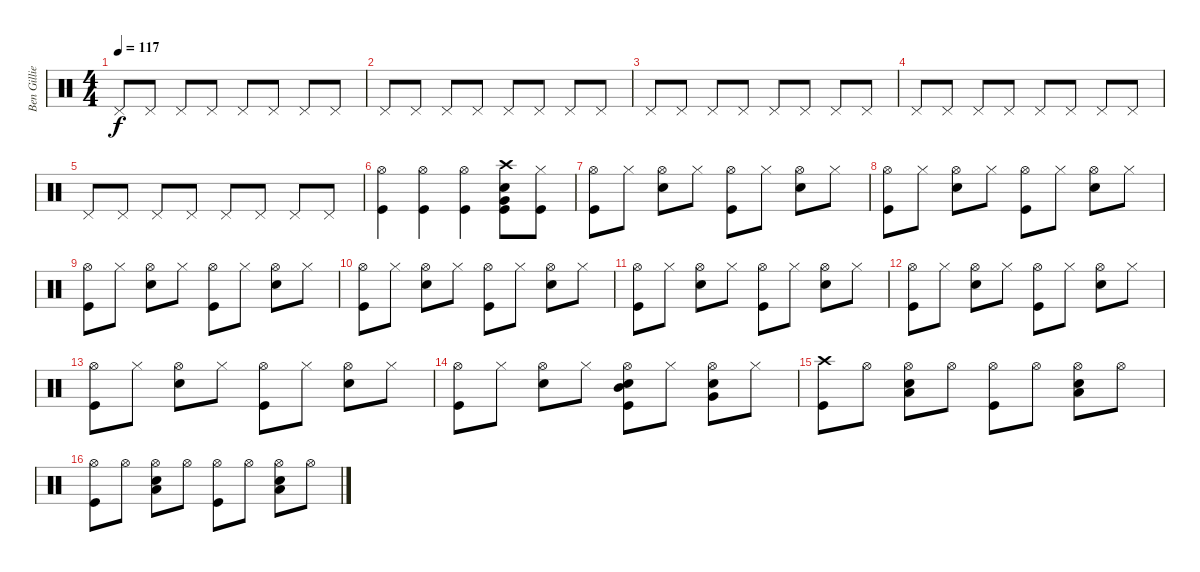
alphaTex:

\track ("Ben Gillies" "Ben Gillie") {instrument percussion}
\staff {score}
\articulation defaults
\ts (4 4)
\tempo 117
\clef neutral
\ks c "Pedal Hi-Hat (hit)".8{dy f} "Pedal Hi-Hat (hit)".8 "Pedal Hi-Hat (hit)".8 "Pedal Hi-Hat (hit)".8 "Pedal Hi-Hat (hit)".8 "Pedal Hi-Hat (hit)".8 "Pedal Hi-Hat (hit)".8 "Pedal Hi-Hat (hit)".8
|
"Pedal Hi-Hat (hit)".8 "Pedal Hi-Hat (hit)".8 "Pedal Hi-Hat (hit)".8 "Pedal Hi-Hat (hit)".8 "Pedal Hi-Hat (hit)".8 "Pedal Hi-Hat (hit)".8 "Pedal Hi-Hat (hit)".8 "Pedal Hi-Hat (hit)".8 |
"Pedal Hi-Hat (hit)".8 "Pedal Hi-Hat (hit)".8 "Pedal Hi-Hat (hit)".8 "Pedal Hi-Hat (hit)".8 "Pedal Hi-Hat (hit)".8 "Pedal Hi-Hat (hit)".8 "Pedal Hi-Hat (hit)".8 "Pedal Hi-Hat (hit)".8 |
"Pedal Hi-Hat (hit)".8 "Pedal Hi-Hat (hit)".8 "Pedal Hi-Hat (hit)".8 "Pedal Hi-Hat (hit)".8 "Pedal Hi-Hat (hit)".8 "Pedal Hi-Hat (hit)".8 "Pedal Hi-Hat (hit)".8 "Pedal Hi-Hat (hit)".8 |
"Pedal Hi-Hat (hit)".8 "Pedal Hi-Hat (hit)".8 "Pedal Hi-Hat (hit)".8 "Pedal Hi-Hat (hit)".8 "Pedal Hi-Hat (hit)".8 "Pedal Hi-Hat (hit)".8 "Pedal Hi-Hat (hit)".8 "Pedal Hi-Hat (hit)".8 |
("Hi-Hat (open)" "Kick (hit)").4 ("Hi-Hat (open)" "Kick (hit)").4 ("Hi-Hat (open)" "Kick (hit)").4 ("Crash high (hit)" "Snare (hit) 2" "Very Low Tom (hit)" "Kick (hit)").8 ("Hi-Hat (closed)" "Kick (hit)").8 |
("Hi-Hat (open)" "Kick (hit)").8 "Hi-Hat (closed)".8 ("Snare (hit) 2" "Hi-Hat (open)").8 "Hi-Hat (closed)".8 ("Hi-Hat (open)" "Kick (hit)").8 "Hi-Hat (closed)".8 ("Snare (hit) 2" "Hi-Hat (open)").8 "Hi-Hat (closed)".8 |
("Hi-Hat (open)" "Kick (hit)").8 "Hi-Hat (closed)".8 ("Snare (hit) 2" "Hi-Hat (open)").8 "Hi-Hat (closed)".8 ("Hi-Hat (open)" "Kick (hit)").8 "Hi-Hat (closed)".8 ("Snare (hit) 2" "Hi-Hat (open)").8 "Hi-Hat (closed)".8 |
("Hi-Hat (open)" "Kick (hit)").8 "Hi-Hat (closed)".8 ("Snare (hit) 2" "Hi-Hat (open)").8 "Hi-Hat (closed)".8 ("Hi-Hat (open)" "Kick (hit)").8 "Hi-Hat (closed)".8 ("Snare (hit) 2" "Hi-Hat (open)").8 "Hi-Hat (closed)".8 |
("Hi-Hat (open)" "Kick (hit)").8 "Hi-Hat (closed)".8 ("Snare (hit) 2" "Hi-Hat (open)").8 "Hi-Hat (closed)".8 ("Hi-Hat (open)" "Kick (hit)").8 "Hi-Hat (closed)".8 ("Snare (hit) 2" "Hi-Hat (open)").8 "Hi-Hat (closed)".8 |
("Hi-Hat (open)" "Kick (hit)").8 "Hi-Hat (closed)".8 ("Snare (hit) 2" "Hi-Hat (open)").8 "Hi-Hat (closed)".8 ("Hi-Hat (open)" "Kick (hit)").8 "Hi-Hat (closed)".8 ("Snare (hit) 2" "Hi-Hat (open)").8 "Hi-Hat (closed)".8 |
("Hi-Hat (open)" "Kick (hit)").8 "Hi-Hat (closed)".8 ("Snare (hit) 2" "Hi-Hat (open)").8 "Hi-Hat (closed)".8 ("Hi-Hat (open)" "Kick (hit)").8 "Hi-Hat (closed)".8 ("Snare (hit) 2" "Hi-Hat (open)").8 "Hi-Hat (closed)".8 |
("Hi-Hat (open)" "Kick (hit)").8 "Hi-Hat (closed)".8 ("Snare (hit) 2" "Hi-Hat (open)").8 "Hi-Hat (closed)".8 ("Hi-Hat (open)" "Kick (hit)").8 "Hi-Hat (closed)".8 ("Snare (hit) 2" "Hi-Hat (open)").8 "Hi-Hat (closed)".8 |
("Hi-Hat (open)" "Kick (hit)").8 "Hi-Hat (closed)".8 ("Snare (hit) 2" "Hi-Hat (open)").8 "Hi-Hat (closed)".8 ("Mid Tom (hit)" "Snare (hit) 2" "Hi-Hat (open)" "Kick (hit)").8 "Hi-Hat (closed)".8 ("Very Low Tom (hit)" "Snare (hit) 2" "Hi-Hat (open)").8 "Hi-Hat (closed)".8 |
("Crash high (hit)" "Kick (hit)").8 "Hi-Hat (open)".8 ("Snare (hit) 2" "Hi-Hat (open)" "Low Tom (hit)").8 "Hi-Hat (open)".8 ("Hi-Hat (open)" "Kick (hit)").8 "Hi-Hat (open)".8 ("Snare (hit) 2" "Hi-Hat (open)" "Low Tom (hit)").8 "Hi-Hat (open)".8 |
("Hi-Hat (open)" "Kick (hit)").8 "Hi-Hat (open)".8 ("Snare (hit) 2" "Hi-Hat (open)" "Low Tom (hit)").8 "Hi-Hat (open)".8 ("Hi-Hat (open)" "Kick (hit)").8 "Hi-Hat (open)".8 ("Snare (hit) 2" "Hi-Hat (open)" "Low Tom (hit)").8 "Hi-Hat (open)".8
